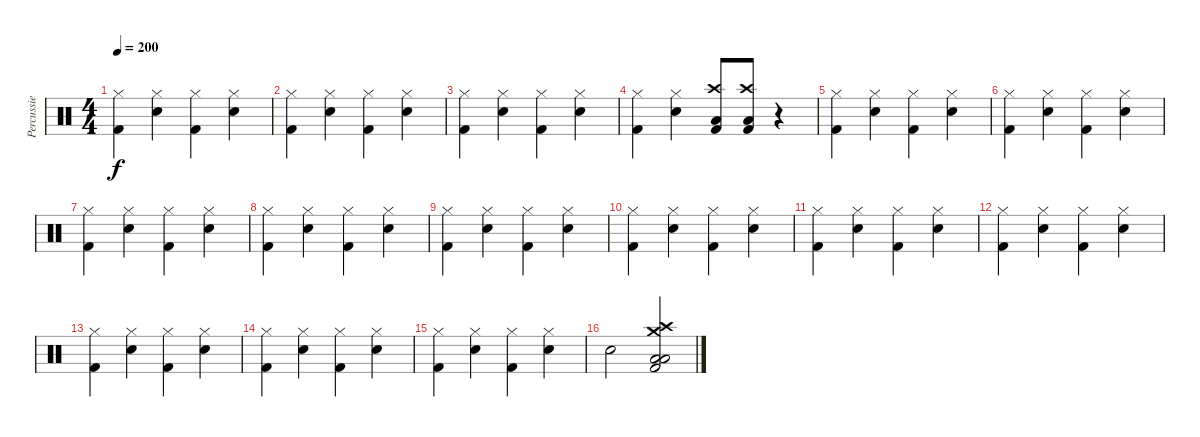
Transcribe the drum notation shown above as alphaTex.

\track ("Percussie" "Percussie") {instrument percussion}
\staff {score}
\articulation defaults
\ts (4 4)
\tempo 200
\clef neutral
\ks c
("Hi-Hat (closed)" "Kick (hit) 2").4{dy f} ("Hi-Hat (closed)" "Snare (hit) 2").4 ("Hi-Hat (closed)" "Kick (hit) 2").4 ("Hi-Hat (closed)" "Snare (hit) 2").4 |
("Hi-Hat (closed)" "Kick (hit) 2").4 ("Hi-Hat (closed)" "Snare (hit) 2").4 ("Hi-Hat (closed)" "Kick (hit) 2").4 ("Hi-Hat (closed)" "Snare (hit) 2").4 |
("Hi-Hat (closed)" "Kick (hit) 2").4 ("Hi-Hat (closed)" "Snare (hit) 2").4 ("Hi-Hat (closed)" "Kick (hit) 2").4 ("Hi-Hat (closed)" "Snare (hit) 2").4 |
("Hi-Hat (closed)" "Kick (hit) 2").4 ("Hi-Hat (closed)" "Snare (hit) 2").4 ("Crash high (hit)" "Low Floor Tom (hit)" "Kick (hit) 2").8 ("Crash high (hit)" "Low Floor Tom (hit)" "Kick (hit) 2").8 r.4 |
("Hi-Hat (closed)" "Kick (hit) 2").4 ("Hi-Hat (closed)" "Snare (hit) 2").4 ("Hi-Hat (closed)" "Kick (hit) 2").4 ("Hi-Hat (closed)" "Snare (hit) 2").4 |
("Hi-Hat (closed)" "Kick (hit) 2").4 ("Hi-Hat (closed)" "Snare (hit) 2").4 ("Hi-Hat (closed)" "Kick (hit) 2").4 ("Hi-Hat (closed)" "Snare (hit) 2").4 |
("Hi-Hat (closed)" "Kick (hit) 2").4 ("Hi-Hat (closed)" "Snare (hit) 2").4 ("Hi-Hat (closed)" "Kick (hit) 2").4 ("Hi-Hat (closed)" "Snare (hit) 2").4 |
("Hi-Hat (closed)" "Kick (hit) 2").4 ("Hi-Hat (closed)" "Snare (hit) 2").4 ("Hi-Hat (closed)" "Kick (hit) 2").4 ("Hi-Hat (closed)" "Snare (hit) 2").4 |
("Hi-Hat (closed)" "Kick (hit) 2").4 ("Hi-Hat (closed)" "Snare (hit) 2").4 ("Hi-Hat (closed)" "Kick (hit) 2").4 ("Hi-Hat (closed)" "Snare (hit) 2").4 |
("Hi-Hat (closed)" "Kick (hit) 2").4 ("Hi-Hat (closed)" "Snare (hit) 2").4 ("Hi-Hat (closed)" "Kick (hit) 2").4 ("Hi-Hat (closed)" "Snare (hit) 2").4 |
("Hi-Hat (closed)" "Kick (hit) 2").4 ("Hi-Hat (closed)" "Snare (hit) 2").4 ("Hi-Hat (closed)" "Kick (hit) 2").4 ("Hi-Hat (closed)" "Snare (hit) 2").4 |
("Hi-Hat (closed)" "Kick (hit) 2").4 ("Hi-Hat (closed)" "Snare (hit) 2").4 ("Hi-Hat (closed)" "Kick (hit) 2").4 ("Hi-Hat (closed)" "Snare (hit) 2").4 |
("Hi-Hat (closed)" "Kick (hit) 2").4 ("Hi-Hat (closed)" "Snare (hit) 2").4 ("Hi-Hat (closed)" "Kick (hit) 2").4 ("Hi-Hat (closed)" "Snare (hit) 2").4 |
("Hi-Hat (closed)" "Kick (hit) 2").4 ("Hi-Hat (closed)" "Snare (hit) 2").4 ("Hi-Hat (closed)" "Kick (hit) 2").4 ("Hi-Hat (closed)" "Snare (hit) 2").4 |
("Hi-Hat (closed)" "Kick (hit) 2").4 ("Hi-Hat (closed)" "Snare (hit) 2").4 ("Hi-Hat (closed)" "Kick (hit) 2").4 ("Hi-Hat (closed)" "Snare (hit) 2").4 |
"Snare (hit) 2".2 ("Crash high (hit)" "Crash medium (hit)" "Low Tom (hit)" "Low Floor Tom (hit)" "Kick (hit) 2").2
